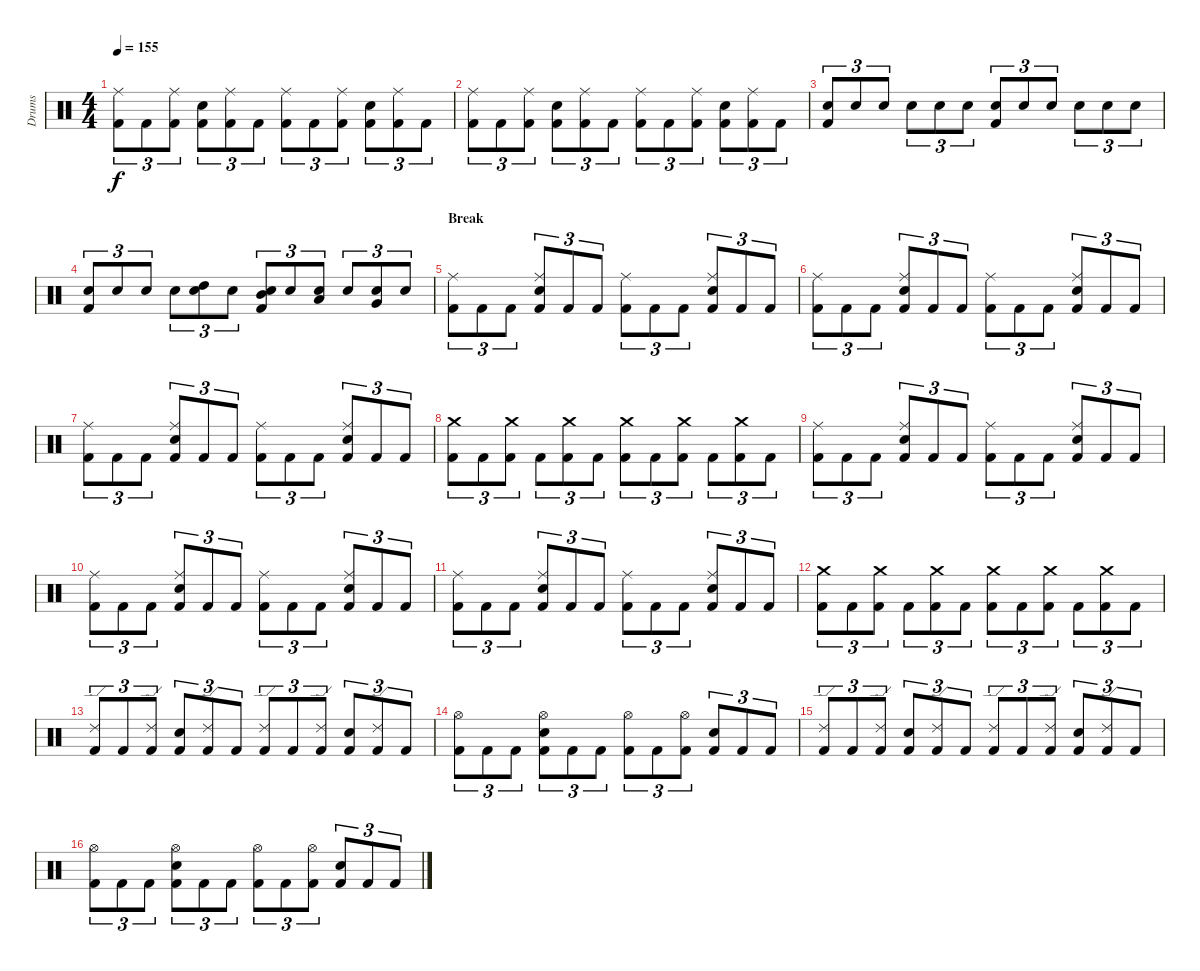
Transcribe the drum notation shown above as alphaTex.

\track ("Drums" "Drums") {instrument percussion}
\staff {score}
\articulation defaults
\ts (4 4)
\tempo 155
\clef neutral
\ks c
("Kick (hit) 2" "Ride (middle)").8{tu (3 2) dy f} "Kick (hit) 2".8{tu (3 2)} ("Kick (hit) 2" "Ride (middle)").8{tu (3 2)} ("Kick (hit) 2" "Electric Snare (hit)").8{tu (3 2)} ("Kick (hit) 2" "Ride (middle)").8{tu (3 2)} "Kick (hit) 2".8{tu (3 2)} ("Kick (hit) 2" "Ride (middle)").8{tu (3 2)} "Kick (hit) 2".8{tu (3 2)} ("Kick (hit) 2" "Ride (middle)").8{tu (3 2)} ("Kick (hit) 2" "Electric Snare (hit)").8{tu (3 2)} ("Kick (hit) 2" "Ride (middle)").8{tu (3 2)} "Kick (hit) 2".8{tu (3 2)} |
("Kick (hit) 2" "Ride (middle)").8{tu (3 2)} "Kick (hit) 2".8{tu (3 2)} ("Kick (hit) 2" "Ride (middle)").8{tu (3 2)} ("Kick (hit) 2" "Electric Snare (hit)").8{tu (3 2)} ("Kick (hit) 2" "Ride (middle)").8{tu (3 2)} "Kick (hit) 2".8{tu (3 2)} ("Kick (hit) 2" "Ride (middle)").8{tu (3 2)} "Kick (hit) 2".8{tu (3 2)} ("Kick (hit) 2" "Ride (middle)").8{tu (3 2)} ("Kick (hit) 2" "Electric Snare (hit)").8{tu (3 2)} ("Kick (hit) 2" "Ride (middle)").8{tu (3 2)} "Kick (hit) 2".8{tu (3 2)} |
("Kick (hit) 2" "Electric Snare (hit)").8{tu (3 2)} "Electric Snare (hit)".8{tu (3 2)} "Electric Snare (hit)".8{tu (3 2)} "Electric Snare (hit)".8{tu (3 2)} "Electric Snare (hit)".8{tu (3 2)} "Electric Snare (hit)".8{tu (3 2)} ("Kick (hit) 2" "Electric Snare (hit)").8{tu (3 2)} "Electric Snare (hit)".8{tu (3 2)} "Electric Snare (hit)".8{tu (3 2)} "Electric Snare (hit)".8{tu (3 2)} "Electric Snare (hit)".8{tu (3 2)} "Electric Snare (hit)".8{tu (3 2)} |
("Kick (hit) 2" "Electric Snare (hit)").8{tu (3 2)} "Electric Snare (hit)".8{tu (3 2)} "Electric Snare (hit)".8{tu (3 2)} "Electric Snare (hit)".8{tu (3 2)} ("Electric Snare (hit)" "High Tom (hit)").8{tu (3 2)} "Electric Snare (hit)".8{tu (3 2)} ("Kick (hit) 2" "Electric Snare (hit)" "Mid Tom (hit)").8{tu (3 2)} "Electric Snare (hit)".8{tu (3 2)} ("Electric Snare (hit)" "Low Tom (hit)").8{tu (3 2)} "Electric Snare (hit)".8{tu (3 2)} ("Electric Snare (hit)" "Very Low Tom (hit)").8{tu (3 2)} "Electric Snare (hit)".8{tu (3 2)} |
\section ("" "Break")
("Kick (hit) 2" "Ride (middle)").8{tu (3 2)} "Kick (hit) 2".8{tu (3 2)} "Kick (hit) 2".8{tu (3 2)} ("Kick (hit) 2" "Electric Snare (hit)" "Ride (middle)").8{tu (3 2)} "Kick (hit) 2".8{tu (3 2)} "Kick (hit) 2".8{tu (3 2)} ("Kick (hit) 2" "Ride (middle)").8{tu (3 2)} "Kick (hit) 2".8{tu (3 2)} "Kick (hit) 2".8{tu (3 2)} ("Kick (hit) 2" "Electric Snare (hit)" "Ride (middle)").8{tu (3 2)} "Kick (hit) 2".8{tu (3 2)} "Kick (hit) 2".8{tu (3 2)} |
("Kick (hit) 2" "Ride (middle)").8{tu (3 2)} "Kick (hit) 2".8{tu (3 2)} "Kick (hit) 2".8{tu (3 2)} ("Kick (hit) 2" "Electric Snare (hit)" "Ride (middle)").8{tu (3 2)} "Kick (hit) 2".8{tu (3 2)} "Kick (hit) 2".8{tu (3 2)} ("Kick (hit) 2" "Ride (middle)").8{tu (3 2)} "Kick (hit) 2".8{tu (3 2)} "Kick (hit) 2".8{tu (3 2)} ("Kick (hit) 2" "Electric Snare (hit)" "Ride (middle)").8{tu (3 2)} "Kick (hit) 2".8{tu (3 2)} "Kick (hit) 2".8{tu (3 2)} |
("Kick (hit) 2" "Ride (middle)").8{tu (3 2)} "Kick (hit) 2".8{tu (3 2)} "Kick (hit) 2".8{tu (3 2)} ("Kick (hit) 2" "Electric Snare (hit)" "Ride (middle)").8{tu (3 2)} "Kick (hit) 2".8{tu (3 2)} "Kick (hit) 2".8{tu (3 2)} ("Kick (hit) 2" "Ride (middle)").8{tu (3 2)} "Kick (hit) 2".8{tu (3 2)} "Kick (hit) 2".8{tu (3 2)} ("Kick (hit) 2" "Electric Snare (hit)" "Ride (middle)").8{tu (3 2)} "Kick (hit) 2".8{tu (3 2)} "Kick (hit) 2".8{tu (3 2)} |
("Kick (hit) 2" "Crash medium (hit)").8{tu (3 2)} "Kick (hit) 2".8{tu (3 2)} ("Kick (hit) 2" "Crash medium (hit)").8{tu (3 2)} "Kick (hit) 2".8{tu (3 2)} ("Kick (hit) 2" "Crash medium (hit)").8{tu (3 2)} "Kick (hit) 2".8{tu (3 2)} ("Kick (hit) 2" "Crash medium (hit)").8{tu (3 2)} "Kick (hit) 2".8{tu (3 2)} ("Kick (hit) 2" "Crash medium (hit)").8{tu (3 2)} "Kick (hit) 2".8{tu (3 2)} ("Kick (hit) 2" "Crash medium (hit)").8{tu (3 2)} "Kick (hit) 2".8{tu (3 2)} |
("Kick (hit) 2" "Ride (middle)").8{tu (3 2)} "Kick (hit) 2".8{tu (3 2)} "Kick (hit) 2".8{tu (3 2)} ("Kick (hit) 2" "Electric Snare (hit)" "Ride (middle)").8{tu (3 2)} "Kick (hit) 2".8{tu (3 2)} "Kick (hit) 2".8{tu (3 2)} ("Kick (hit) 2" "Ride (middle)").8{tu (3 2)} "Kick (hit) 2".8{tu (3 2)} "Kick (hit) 2".8{tu (3 2)} ("Kick (hit) 2" "Electric Snare (hit)" "Ride (middle)").8{tu (3 2)} "Kick (hit) 2".8{tu (3 2)} "Kick (hit) 2".8{tu (3 2)} |
("Kick (hit) 2" "Ride (middle)").8{tu (3 2)} "Kick (hit) 2".8{tu (3 2)} "Kick (hit) 2".8{tu (3 2)} ("Kick (hit) 2" "Electric Snare (hit)" "Ride (middle)").8{tu (3 2)} "Kick (hit) 2".8{tu (3 2)} "Kick (hit) 2".8{tu (3 2)} ("Kick (hit) 2" "Ride (middle)").8{tu (3 2)} "Kick (hit) 2".8{tu (3 2)} "Kick (hit) 2".8{tu (3 2)} ("Kick (hit) 2" "Electric Snare (hit)" "Ride (middle)").8{tu (3 2)} "Kick (hit) 2".8{tu (3 2)} "Kick (hit) 2".8{tu (3 2)} |
("Kick (hit) 2" "Ride (middle)").8{tu (3 2)} "Kick (hit) 2".8{tu (3 2)} "Kick (hit) 2".8{tu (3 2)} ("Kick (hit) 2" "Electric Snare (hit)" "Ride (middle)").8{tu (3 2)} "Kick (hit) 2".8{tu (3 2)} "Kick (hit) 2".8{tu (3 2)} ("Kick (hit) 2" "Ride (middle)").8{tu (3 2)} "Kick (hit) 2".8{tu (3 2)} "Kick (hit) 2".8{tu (3 2)} ("Kick (hit) 2" "Electric Snare (hit)" "Ride (middle)").8{tu (3 2)} "Kick (hit) 2".8{tu (3 2)} "Kick (hit) 2".8{tu (3 2)} |
("Kick (hit) 2" "Crash medium (hit)").8{tu (3 2)} "Kick (hit) 2".8{tu (3 2)} ("Kick (hit) 2" "Crash medium (hit)").8{tu (3 2)} "Kick (hit) 2".8{tu (3 2)} ("Kick (hit) 2" "Crash medium (hit)").8{tu (3 2)} "Kick (hit) 2".8{tu (3 2)} ("Kick (hit) 2" "Crash medium (hit)").8{tu (3 2)} "Kick (hit) 2".8{tu (3 2)} ("Kick (hit) 2" "Crash medium (hit)").8{tu (3 2)} "Kick (hit) 2".8{tu (3 2)} ("Kick (hit) 2" "Crash medium (hit)").8{tu (3 2)} "Kick (hit) 2".8{tu (3 2)} |
("Kick (hit) 2" "Ride (edge) 2").8{tu (3 2)} "Kick (hit) 2".8{tu (3 2)} ("Kick (hit) 2" "Ride (edge) 2").8{tu (3 2)} ("Kick (hit) 2" "Electric Snare (hit)").8{tu (3 2)} ("Kick (hit) 2" "Ride (edge) 2").8{tu (3 2)} "Kick (hit) 2".8{tu (3 2)} ("Kick (hit) 2" "Ride (edge) 2").8{tu (3 2)} "Kick (hit) 2".8{tu (3 2)} ("Kick (hit) 2" "Ride (edge) 2").8{tu (3 2)} ("Kick (hit) 2" "Electric Snare (hit)").8{tu (3 2)} ("Kick (hit) 2" "Ride (edge) 2").8{tu (3 2)} "Kick (hit) 2".8{tu (3 2)} |
("Kick (hit) 2" "Hi-Hat (open)").8{tu (3 2)} "Kick (hit) 2".8{tu (3 2)} "Kick (hit) 2".8{tu (3 2)} ("Kick (hit) 2" "Electric Snare (hit)" "Hi-Hat (open)").8{tu (3 2)} "Kick (hit) 2".8{tu (3 2)} "Kick (hit) 2".8{tu (3 2)} ("Kick (hit) 2" "Hi-Hat (open)").8{tu (3 2)} "Kick (hit) 2".8{tu (3 2)} ("Kick (hit) 2" "Hi-Hat (open)").8{tu (3 2)} ("Kick (hit) 2" "Electric Snare (hit)").8{tu (3 2)} "Kick (hit) 2".8{tu (3 2)} "Kick (hit) 2".8{tu (3 2)} |
("Kick (hit) 2" "Ride (edge) 2").8{tu (3 2)} "Kick (hit) 2".8{tu (3 2)} ("Kick (hit) 2" "Ride (edge) 2").8{tu (3 2)} ("Kick (hit) 2" "Electric Snare (hit)").8{tu (3 2)} ("Kick (hit) 2" "Ride (edge) 2").8{tu (3 2)} "Kick (hit) 2".8{tu (3 2)} ("Kick (hit) 2" "Ride (edge) 2").8{tu (3 2)} "Kick (hit) 2".8{tu (3 2)} ("Kick (hit) 2" "Ride (edge) 2").8{tu (3 2)} ("Kick (hit) 2" "Electric Snare (hit)").8{tu (3 2)} ("Kick (hit) 2" "Ride (edge) 2").8{tu (3 2)} "Kick (hit) 2".8{tu (3 2)} |
("Kick (hit) 2" "Hi-Hat (open)").8{tu (3 2)} "Kick (hit) 2".8{tu (3 2)} "Kick (hit) 2".8{tu (3 2)} ("Kick (hit) 2" "Electric Snare (hit)" "Hi-Hat (open)").8{tu (3 2)} "Kick (hit) 2".8{tu (3 2)} "Kick (hit) 2".8{tu (3 2)} ("Kick (hit) 2" "Hi-Hat (open)").8{tu (3 2)} "Kick (hit) 2".8{tu (3 2)} ("Kick (hit) 2" "Hi-Hat (open)").8{tu (3 2)} ("Kick (hit) 2" "Electric Snare (hit)").8{tu (3 2)} "Kick (hit) 2".8{tu (3 2)} "Kick (hit) 2".8{tu (3 2)}
